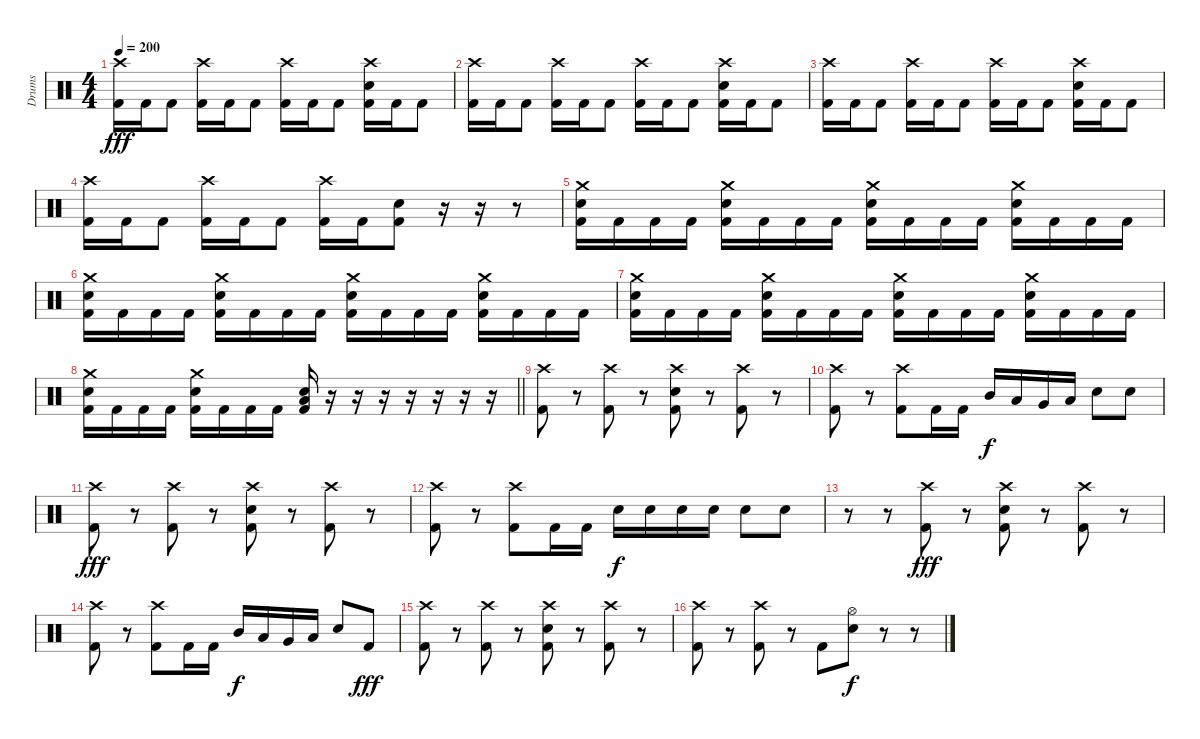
\track ("Drums" "Drums") {instrument percussion}
\staff {score}
\articulation defaults
\ts (4 4)
\tempo 200
\clef neutral
\ks c
("Crash high (hit)" "Kick (hit) 2").16{dy fff} "Kick (hit) 2".16 "Kick (hit) 2".8 ("Crash high (hit)" "Kick (hit) 2").16 "Kick (hit) 2".16 "Kick (hit) 2".8 ("Crash high (hit)" "Kick (hit) 2").16 "Kick (hit) 2".16 "Kick (hit) 2".8 ("Crash high (hit)" "Electric Snare (hit)" "Kick (hit) 2").16 "Kick (hit) 2".16 "Kick (hit) 2".8 |
("Crash high (hit)" "Kick (hit) 2").16 "Kick (hit) 2".16 "Kick (hit) 2".8 ("Crash high (hit)" "Kick (hit) 2").16 "Kick (hit) 2".16 "Kick (hit) 2".8 ("Crash high (hit)" "Kick (hit) 2").16 "Kick (hit) 2".16 "Kick (hit) 2".8 ("Crash high (hit)" "Electric Snare (hit)" "Kick (hit) 2").16 "Kick (hit) 2".16 "Kick (hit) 2".8 |
("Crash high (hit)" "Kick (hit) 2").16 "Kick (hit) 2".16 "Kick (hit) 2".8 ("Crash high (hit)" "Kick (hit) 2").16 "Kick (hit) 2".16 "Kick (hit) 2".8 ("Crash high (hit)" "Kick (hit) 2").16 "Kick (hit) 2".16 "Kick (hit) 2".8 ("Crash high (hit)" "Electric Snare (hit)" "Kick (hit) 2").16 "Kick (hit) 2".16 "Kick (hit) 2".8 |
("Crash high (hit)" "Kick (hit) 2").16 "Kick (hit) 2".16 "Kick (hit) 2".8 ("Crash high (hit)" "Kick (hit) 2").16 "Kick (hit) 2".16 "Kick (hit) 2".8 ("Crash high (hit)" "Kick (hit) 2").16 "Kick (hit) 2".16 ("Electric Snare (hit)" "Kick (hit) 2").8 r.16 r.16 r.8 |
("Crash medium (hit)" "Electric Snare (hit)" "Kick (hit) 2").16 "Kick (hit) 2".16 "Kick (hit) 2".16 "Kick (hit) 2".16 ("Crash medium (hit)" "Electric Snare (hit)" "Kick (hit) 2").16 "Kick (hit) 2".16 "Kick (hit) 2".16 "Kick (hit) 2".16 ("Crash medium (hit)" "Electric Snare (hit)" "Kick (hit) 2").16 "Kick (hit) 2".16 "Kick (hit) 2".16 "Kick (hit) 2".16 ("Crash medium (hit)" "Electric Snare (hit)" "Kick (hit) 2").16 "Kick (hit) 2".16 "Kick (hit) 2".16 "Kick (hit) 2".16 |
("Crash medium (hit)" "Electric Snare (hit)" "Kick (hit) 2").16 "Kick (hit) 2".16 "Kick (hit) 2".16 "Kick (hit) 2".16 ("Crash medium (hit)" "Electric Snare (hit)" "Kick (hit) 2").16 "Kick (hit) 2".16 "Kick (hit) 2".16 "Kick (hit) 2".16 ("Crash medium (hit)" "Electric Snare (hit)" "Kick (hit) 2").16 "Kick (hit) 2".16 "Kick (hit) 2".16 "Kick (hit) 2".16 ("Crash medium (hit)" "Electric Snare (hit)" "Kick (hit) 2").16 "Kick (hit) 2".16 "Kick (hit) 2".16 "Kick (hit) 2".16 |
("Crash medium (hit)" "Electric Snare (hit)" "Kick (hit) 2").16 "Kick (hit) 2".16 "Kick (hit) 2".16 "Kick (hit) 2".16 ("Crash medium (hit)" "Electric Snare (hit)" "Kick (hit) 2").16 "Kick (hit) 2".16 "Kick (hit) 2".16 "Kick (hit) 2".16 ("Crash medium (hit)" "Electric Snare (hit)" "Kick (hit) 2").16 "Kick (hit) 2".16 "Kick (hit) 2".16 "Kick (hit) 2".16 ("Crash medium (hit)" "Electric Snare (hit)" "Kick (hit) 2").16 "Kick (hit) 2".16 "Kick (hit) 2".16 "Kick (hit) 2".16 |
\barLineRight lightlight
("Crash medium (hit)" "Electric Snare (hit)" "Kick (hit) 2").16 "Kick (hit) 2".16 "Kick (hit) 2".16 "Kick (hit) 2".16 ("Crash medium (hit)" "Electric Snare (hit)" "Kick (hit) 2").16 "Kick (hit) 2".16 "Kick (hit) 2".16 "Kick (hit) 2".16 ("Low Floor Tom (hit)" "Electric Snare (hit)" "Kick (hit) 2").16 r.16 r.16 r.16 r.16 r.16 r.16 r.16 |
\section ("" "")
("Crash high (hit)" "Kick (hit) 2").8 r.8 ("Crash high (hit)" "Kick (hit) 2").8 r.8 ("Crash high (hit)" "Electric Snare (hit)" "Kick (hit) 2").8 r.8 ("Crash high (hit)" "Kick (hit) 2").8 r.8 |
("Crash high (hit)" "Kick (hit) 2").8 r.8 ("Crash high (hit)" "Kick (hit) 2").8 "Kick (hit) 2".16 "Kick (hit) 2".16 "Mid Tom (hit)".16{dy f} "Low Tom (hit)".16 "Very Low Tom (hit)".16 "Low Floor Tom (hit)".16 "Electric Snare (hit)".8 "Electric Snare (hit)".8 |
("Crash high (hit)" "Kick (hit) 2").8{dy fff} r.8 ("Crash high (hit)" "Kick (hit) 2").8 r.8 ("Crash high (hit)" "Electric Snare (hit)" "Kick (hit) 2").8 r.8 ("Crash high (hit)" "Kick (hit) 2").8 r.8 |
("Crash high (hit)" "Kick (hit) 2").8 r.8 ("Crash high (hit)" "Kick (hit) 2").8 "Kick (hit) 2".16 "Kick (hit) 2".16 "Electric Snare (hit)".16{dy f} "Electric Snare (hit)".16 "Electric Snare (hit)".16 "Electric Snare (hit)".16 "Electric Snare (hit)".8 "Electric Snare (hit)".8 |
r.8 r.8 ("Crash high (hit)" "Kick (hit) 2").8{dy fff} r.8 ("Crash high (hit)" "Electric Snare (hit)" "Kick (hit) 2").8 r.8 ("Crash high (hit)" "Kick (hit) 2").8 r.8 |
("Crash high (hit)" "Kick (hit) 2").8 r.8 ("Crash high (hit)" "Kick (hit) 2").8 "Kick (hit) 2".16 "Kick (hit) 2".16 "Mid Tom (hit)".16{dy f} "Low Tom (hit)".16 "Very Low Tom (hit)".16 "Low Floor Tom (hit)".16 "Electric Snare (hit)".8 "Kick (hit) 2".8{dy fff} |
("Crash high (hit)" "Kick (hit) 2").8 r.8 ("Crash high (hit)" "Kick (hit) 2").8 r.8 ("Crash high (hit)" "Electric Snare (hit)" "Kick (hit) 2").8 r.8 ("Crash high (hit)" "Kick (hit) 2").8 r.8 |
("Crash high (hit)" "Kick (hit) 2").8 r.8 ("Crash high (hit)" "Kick (hit) 2").8 r.8 "Kick (hit) 2".8 ("Hi-Hat (open)" "Electric Snare (hit)").8{dy f} r.8 r.8
